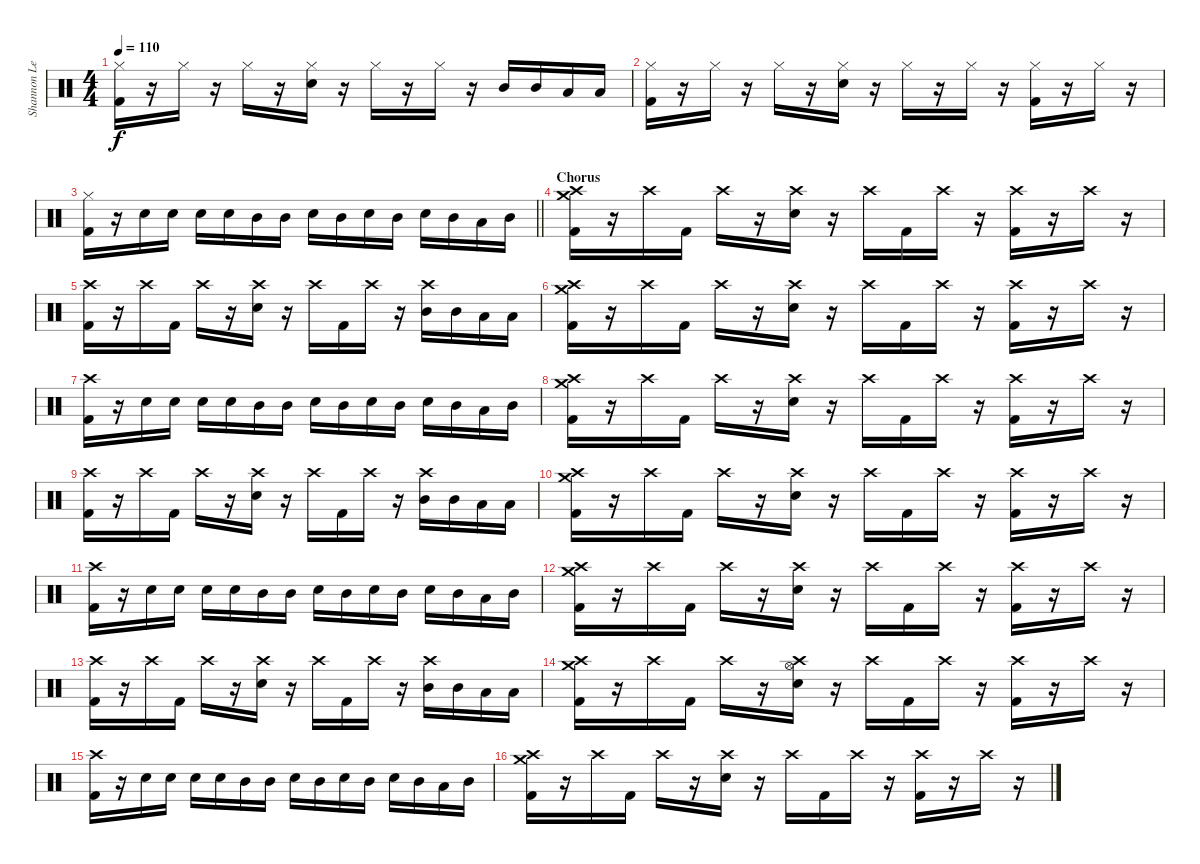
\track ("Shannon Leto [Drums]" "Shannon Le") {instrument percussion}
\staff {score}
\articulation defaults
\ts (4 4)
\tempo 110
\clef neutral
\ks c
("Hi-Hat (closed)" "Kick (hit) 2").16{dy f} r.16 "Hi-Hat (closed)".16 r.16 "Hi-Hat (closed)".16 r.16 ("Hi-Hat (closed)" "Electric Snare (hit)").16 r.16 "Hi-Hat (closed)".16 r.16 "Hi-Hat (closed)".16 r.16 "Mid Tom (hit)".16 "Mid Tom (hit)".16 "Low Tom (hit)".16 "Low Tom (hit)".16 |
("Hi-Hat (closed)" "Kick (hit) 2").16 r.16 "Hi-Hat (closed)".16 r.16 "Hi-Hat (closed)".16 r.16 ("Hi-Hat (closed)" "Electric Snare (hit)").16 r.16 "Hi-Hat (closed)".16 r.16 "Hi-Hat (closed)".16 r.16 ("Hi-Hat (closed)" "Kick (hit) 2").16 r.16 "Hi-Hat (closed)".16 r.16 |
\barLineRight lightlight
("Hi-Hat (closed)" "Kick (hit) 2").16 r.16 "Electric Snare (hit)".16 "Electric Snare (hit)".16 "Electric Snare (hit)".16 "Electric Snare (hit)".16 "Mid Tom (hit)".16 "Mid Tom (hit)".16 "Electric Snare (hit)".16 "Mid Tom (hit)".16 "Electric Snare (hit)".16 "Mid Tom (hit)".16 "Electric Snare (hit)".16 "Mid Tom (hit)".16 "Low Tom (hit)".16 "Mid Tom (hit)".16 |
\section ("" "Chorus")
("Crash high (hit)" "Crash medium (hit)" "Kick (hit) 2").16 r.16 "Crash high (hit)".16 "Kick (hit) 2".16 "Crash high (hit)".16 r.16 ("Crash high (hit)" "Electric Snare (hit)").16 r.16 "Crash high (hit)".16 "Kick (hit) 2".16 "Crash high (hit)".16 r.16 ("Crash high (hit)" "Kick (hit) 2").16 r.16 "Crash high (hit)".16 r.16 |
("Crash high (hit)" "Kick (hit) 2").16 r.16 "Crash high (hit)".16 "Kick (hit) 2".16 "Crash high (hit)".16 r.16 ("Crash high (hit)" "Electric Snare (hit)").16 r.16 "Crash high (hit)".16 "Kick (hit) 2".16 "Crash high (hit)".16 r.16 ("Crash high (hit)" "Mid Tom (hit)").16 "Mid Tom (hit)".16 "Low Tom (hit)".16 "Low Tom (hit)".16 |
("Crash high (hit)" "Crash medium (hit)" "Kick (hit) 2").16 r.16 "Crash high (hit)".16 "Kick (hit) 2".16 "Crash high (hit)".16 r.16 ("Crash high (hit)" "Electric Snare (hit)").16 r.16 "Crash high (hit)".16 "Kick (hit) 2".16 "Crash high (hit)".16 r.16 ("Crash high (hit)" "Kick (hit) 2").16 r.16 "Crash high (hit)".16 r.16 |
("Crash high (hit)" "Kick (hit) 2").16 r.16 "Electric Snare (hit)".16 "Electric Snare (hit)".16 "Electric Snare (hit)".16 "Electric Snare (hit)".16 "Mid Tom (hit)".16 "Mid Tom (hit)".16 "Electric Snare (hit)".16 "Mid Tom (hit)".16 "Electric Snare (hit)".16 "Mid Tom (hit)".16 "Electric Snare (hit)".16 "Mid Tom (hit)".16 "Low Tom (hit)".16 "Mid Tom (hit)".16 |
("Crash high (hit)" "Crash medium (hit)" "Kick (hit) 2").16 r.16 "Crash high (hit)".16 "Kick (hit) 2".16 "Crash high (hit)".16 r.16 ("Crash high (hit)" "Electric Snare (hit)").16 r.16 "Crash high (hit)".16 "Kick (hit) 2".16 "Crash high (hit)".16 r.16 ("Crash high (hit)" "Kick (hit) 2").16 r.16 "Crash high (hit)".16 r.16 |
("Crash high (hit)" "Kick (hit) 2").16 r.16 "Crash high (hit)".16 "Kick (hit) 2".16 "Crash high (hit)".16 r.16 ("Crash high (hit)" "Electric Snare (hit)").16 r.16 "Crash high (hit)".16 "Kick (hit) 2".16 "Crash high (hit)".16 r.16 ("Crash high (hit)" "Mid Tom (hit)").16 "Mid Tom (hit)".16 "Low Tom (hit)".16 "Low Tom (hit)".16 |
("Crash high (hit)" "Crash medium (hit)" "Kick (hit) 2").16 r.16 "Crash high (hit)".16 "Kick (hit) 2".16 "Crash high (hit)".16 r.16 ("Crash high (hit)" "Electric Snare (hit)").16 r.16 "Crash high (hit)".16 "Kick (hit) 2".16 "Crash high (hit)".16 r.16 ("Crash high (hit)" "Kick (hit) 2").16 r.16 "Crash high (hit)".16 r.16 |
("Crash high (hit)" "Kick (hit) 2").16 r.16 "Electric Snare (hit)".16 "Electric Snare (hit)".16 "Electric Snare (hit)".16 "Electric Snare (hit)".16 "Mid Tom (hit)".16 "Mid Tom (hit)".16 "Electric Snare (hit)".16 "Mid Tom (hit)".16 "Electric Snare (hit)".16 "Mid Tom (hit)".16 "Electric Snare (hit)".16 "Mid Tom (hit)".16 "Low Tom (hit)".16 "Mid Tom (hit)".16 |
("Crash high (hit)" "Crash medium (hit)" "Kick (hit) 2").16 r.16 "Crash high (hit)".16 "Kick (hit) 2".16 "Crash high (hit)".16 r.16 ("Crash high (hit)" "Electric Snare (hit)").16 r.16 "Crash high (hit)".16 "Kick (hit) 2".16 "Crash high (hit)".16 r.16 ("Crash high (hit)" "Kick (hit) 2").16 r.16 "Crash high (hit)".16 r.16 |
("Crash high (hit)" "Kick (hit) 2").16 r.16 "Crash high (hit)".16 "Kick (hit) 2".16 "Crash high (hit)".16 r.16 ("Crash high (hit)" "Electric Snare (hit)").16 r.16 "Crash high (hit)".16 "Kick (hit) 2".16 "Crash high (hit)".16 r.16 ("Crash high (hit)" "Mid Tom (hit)").16 "Mid Tom (hit)".16 "Low Tom (hit)".16 "Low Tom (hit)".16 |
("Crash high (hit)" "Crash medium (hit)" "Kick (hit) 2").16 r.16 "Crash high (hit)".16 "Kick (hit) 2".16 "Crash high (hit)".16 r.16 ("Crash high (hit)" "Hi-Hat (open)" "Electric Snare (hit)").16 r.16 "Crash high (hit)".16 "Kick (hit) 2".16 "Crash high (hit)".16 r.16 ("Crash high (hit)" "Kick (hit) 2").16 r.16 "Crash high (hit)".16 r.16 |
("Crash high (hit)" "Kick (hit) 2").16 r.16 "Electric Snare (hit)".16 "Electric Snare (hit)".16 "Electric Snare (hit)".16 "Electric Snare (hit)".16 "Mid Tom (hit)".16 "Mid Tom (hit)".16 "Electric Snare (hit)".16 "Mid Tom (hit)".16 "Electric Snare (hit)".16 "Mid Tom (hit)".16 "Electric Snare (hit)".16 "Mid Tom (hit)".16 "Low Tom (hit)".16 "Mid Tom (hit)".16 |
("Crash high (hit)" "Crash medium (hit)" "Kick (hit) 2").16 r.16 "Crash high (hit)".16 "Kick (hit) 2".16 "Crash high (hit)".16 r.16 ("Crash high (hit)" "Electric Snare (hit)").16 r.16 "Crash high (hit)".16 "Kick (hit) 2".16 "Crash high (hit)".16 r.16 ("Crash high (hit)" "Kick (hit) 2").16 r.16 "Crash high (hit)".16 r.16
